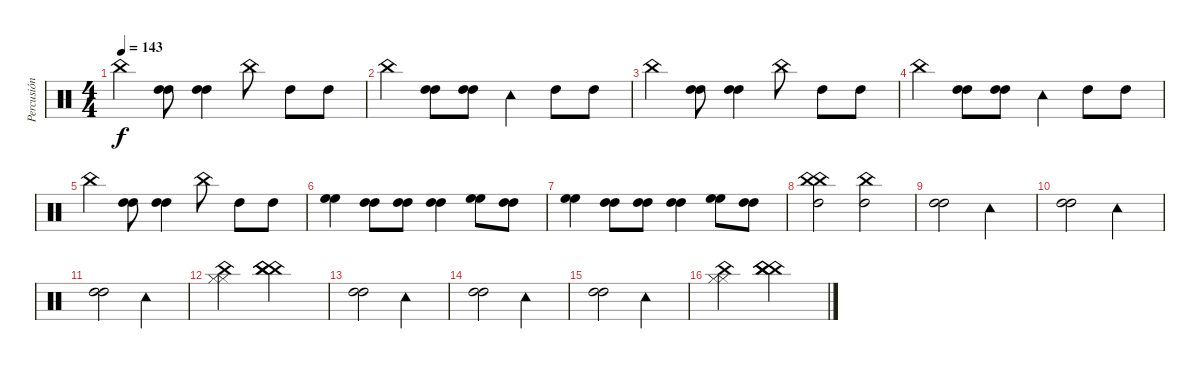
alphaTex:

\track ("Percusión" "Percusión") {instrument percussion}
\staff {score}
\articulation defaults
\ts (4 4)
\tempo 143
\clef neutral
\ks c "China (hit)".4{dy f}
("High Tom (hit)" "High Tom (hit)").8 ("High Tom (hit)" "High Tom (hit)").4 "China (hit)".8 "High Tom (hit)".8 "High Tom (hit)".8 |
"China (hit)".4 ("High Tom (hit)" "High Tom (hit)").8 ("High Tom (hit)" "High Tom (hit)").8 "Tambourine (hit)".4 "High Tom (hit)".8 "High Tom (hit)".8 |
"China (hit)".4 ("High Tom (hit)" "High Tom (hit)").8 ("High Tom (hit)" "High Tom (hit)").4 "China (hit)".8 "High Tom (hit)".8 "High Tom (hit)".8 |
"China (hit)".4 ("High Tom (hit)" "High Tom (hit)").8 ("High Tom (hit)" "High Tom (hit)").8 "Tambourine (hit)".4 "High Tom (hit)".8 "High Tom (hit)".8 |
"China (hit)".4 ("High Tom (hit)" "High Tom (hit)").8 ("High Tom (hit)" "High Tom (hit)").4 "China (hit)".8 "High Tom (hit)".8 "High Tom (hit)".8 |
("High Floor Tom (hit)" "High Floor Tom (hit)").4 ("High Tom (hit)" "High Tom (hit)").8 ("High Tom (hit)" "High Tom (hit)").8 ("High Tom (hit)" "High Tom (hit)").4 ("High Floor Tom (hit)" "High Floor Tom (hit)").8 ("High Tom (hit)" "High Tom (hit)").8 |
("High Floor Tom (hit)" "High Floor Tom (hit)").4 ("High Tom (hit)" "High Tom (hit)").8 ("High Tom (hit)" "High Tom (hit)").8 ("High Tom (hit)" "High Tom (hit)").4 ("High Floor Tom (hit)" "High Floor Tom (hit)").8 ("High Tom (hit)" "High Tom (hit)").8 |
("China (hit)" "High Tom (hit)" "China (hit)").2 ("China (hit)" "High Tom (hit)").2 |
("High Tom (hit)" "High Tom (hit)").2 "Tambourine (hit)".2 |
("High Tom (hit)" "High Tom (hit)").2 "Tambourine (hit)".2 |
("High Tom (hit)" "High Tom (hit)").2 "Tambourine (hit)".2 |
("Hi-Hat (closed)" "Hi-Hat (closed)" "China (hit)").2 ("China (hit)" "China (hit)" "China (hit)").2 |
("High Tom (hit)" "High Tom (hit)").2 "Tambourine (hit)".2 |
("High Tom (hit)" "High Tom (hit)").2 "Tambourine (hit)".2 |
("High Tom (hit)" "High Tom (hit)").2 "Tambourine (hit)".2 |
("Hi-Hat (closed)" "Hi-Hat (closed)" "China (hit)").2 ("China (hit)" "China (hit)" "China (hit)").2
